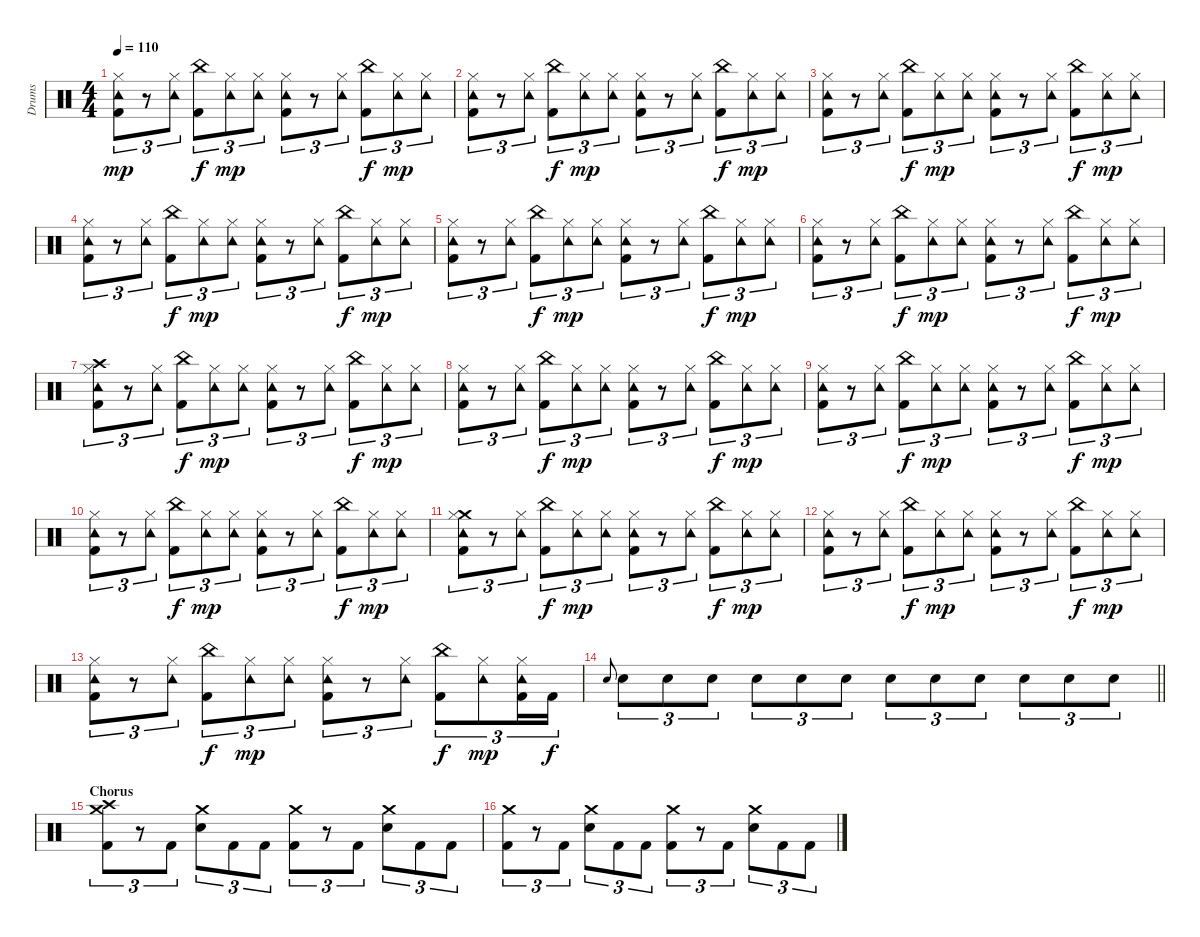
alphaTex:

\track ("Drums" "Drums") {instrument percussion}
\staff {score}
\articulation defaults
\ts (4 4)
\tempo 110
\clef neutral
\ks c
("Hi-Hat (closed)" "Tambourine (hit)" "Kick (hit) 2").8{tu (3 2) dy mp} r.8{tu (3 2)} ("Hi-Hat (closed)" "Tambourine (hit)").8{tu (3 2)} ("China (hit)" "Kick (hit) 2").8{tu (3 2) dy f} ("Hi-Hat (closed)" "Tambourine (hit)").8{tu (3 2) dy mp} ("Hi-Hat (closed)" "Tambourine (hit)").8{tu (3 2)} ("Hi-Hat (closed)" "Tambourine (hit)" "Kick (hit) 2").8{tu (3 2)} r.8{tu (3 2)} ("Hi-Hat (closed)" "Tambourine (hit)").8{tu (3 2)} ("China (hit)" "Kick (hit) 2").8{tu (3 2) dy f} ("Hi-Hat (closed)" "Tambourine (hit)").8{tu (3 2) dy mp} ("Hi-Hat (closed)" "Tambourine (hit)").8{tu (3 2)} |
("Hi-Hat (closed)" "Tambourine (hit)" "Kick (hit) 2").8{tu (3 2)} r.8{tu (3 2)} ("Hi-Hat (closed)" "Tambourine (hit)").8{tu (3 2)} ("China (hit)" "Kick (hit) 2").8{tu (3 2) dy f} ("Hi-Hat (closed)" "Tambourine (hit)").8{tu (3 2) dy mp} ("Hi-Hat (closed)" "Tambourine (hit)").8{tu (3 2)} ("Hi-Hat (closed)" "Tambourine (hit)" "Kick (hit) 2").8{tu (3 2)} r.8{tu (3 2)} ("Hi-Hat (closed)" "Tambourine (hit)").8{tu (3 2)} ("China (hit)" "Kick (hit) 2").8{tu (3 2) dy f} ("Hi-Hat (closed)" "Tambourine (hit)").8{tu (3 2) dy mp} ("Hi-Hat (closed)" "Tambourine (hit)").8{tu (3 2)} |
("Hi-Hat (closed)" "Tambourine (hit)" "Kick (hit) 2").8{tu (3 2)} r.8{tu (3 2)} ("Hi-Hat (closed)" "Tambourine (hit)").8{tu (3 2)} ("China (hit)" "Kick (hit) 2").8{tu (3 2) dy f} ("Hi-Hat (closed)" "Tambourine (hit)").8{tu (3 2) dy mp} ("Hi-Hat (closed)" "Tambourine (hit)").8{tu (3 2)} ("Hi-Hat (closed)" "Tambourine (hit)" "Kick (hit) 2").8{tu (3 2)} r.8{tu (3 2)} ("Hi-Hat (closed)" "Tambourine (hit)").8{tu (3 2)} ("China (hit)" "Kick (hit) 2").8{tu (3 2) dy f} ("Hi-Hat (closed)" "Tambourine (hit)").8{tu (3 2) dy mp} ("Hi-Hat (closed)" "Tambourine (hit)").8{tu (3 2)} |
("Hi-Hat (closed)" "Tambourine (hit)" "Kick (hit) 2").8{tu (3 2)} r.8{tu (3 2)} ("Hi-Hat (closed)" "Tambourine (hit)").8{tu (3 2)} ("China (hit)" "Kick (hit) 2").8{tu (3 2) dy f} ("Hi-Hat (closed)" "Tambourine (hit)").8{tu (3 2) dy mp} ("Hi-Hat (closed)" "Tambourine (hit)").8{tu (3 2)} ("Hi-Hat (closed)" "Tambourine (hit)" "Kick (hit) 2").8{tu (3 2)} r.8{tu (3 2)} ("Hi-Hat (closed)" "Tambourine (hit)").8{tu (3 2)} ("China (hit)" "Kick (hit) 2").8{tu (3 2) dy f} ("Hi-Hat (closed)" "Tambourine (hit)").8{tu (3 2) dy mp} ("Hi-Hat (closed)" "Tambourine (hit)").8{tu (3 2)} |
("Hi-Hat (closed)" "Tambourine (hit)" "Kick (hit) 2").8{tu (3 2)} r.8{tu (3 2)} ("Hi-Hat (closed)" "Tambourine (hit)").8{tu (3 2)} ("China (hit)" "Kick (hit) 2").8{tu (3 2) dy f} ("Hi-Hat (closed)" "Tambourine (hit)").8{tu (3 2) dy mp} ("Hi-Hat (closed)" "Tambourine (hit)").8{tu (3 2)} ("Hi-Hat (closed)" "Tambourine (hit)" "Kick (hit) 2").8{tu (3 2)} r.8{tu (3 2)} ("Hi-Hat (closed)" "Tambourine (hit)").8{tu (3 2)} ("China (hit)" "Kick (hit) 2").8{tu (3 2) dy f} ("Hi-Hat (closed)" "Tambourine (hit)").8{tu (3 2) dy mp} ("Hi-Hat (closed)" "Tambourine (hit)").8{tu (3 2)} |
("Hi-Hat (closed)" "Tambourine (hit)" "Kick (hit) 2").8{tu (3 2)} r.8{tu (3 2)} ("Hi-Hat (closed)" "Tambourine (hit)").8{tu (3 2)} ("China (hit)" "Kick (hit) 2").8{tu (3 2) dy f} ("Hi-Hat (closed)" "Tambourine (hit)").8{tu (3 2) dy mp} ("Hi-Hat (closed)" "Tambourine (hit)").8{tu (3 2)} ("Hi-Hat (closed)" "Tambourine (hit)" "Kick (hit) 2").8{tu (3 2)} r.8{tu (3 2)} ("Hi-Hat (closed)" "Tambourine (hit)").8{tu (3 2)} ("China (hit)" "Kick (hit) 2").8{tu (3 2) dy f} ("Hi-Hat (closed)" "Tambourine (hit)").8{tu (3 2) dy mp} ("Hi-Hat (closed)" "Tambourine (hit)").8{tu (3 2)} |
("Crash high (hit)" "Hi-Hat (closed)" "Tambourine (hit)" "Kick (hit) 2").8{tu (3 2)} r.8{tu (3 2)} ("Hi-Hat (closed)" "Tambourine (hit)").8{tu (3 2)} ("China (hit)" "Kick (hit) 2").8{tu (3 2) dy f} ("Hi-Hat (closed)" "Tambourine (hit)").8{tu (3 2) dy mp} ("Hi-Hat (closed)" "Tambourine (hit)").8{tu (3 2)} ("Hi-Hat (closed)" "Tambourine (hit)" "Kick (hit) 2").8{tu (3 2)} r.8{tu (3 2)} ("Hi-Hat (closed)" "Tambourine (hit)").8{tu (3 2)} ("China (hit)" "Kick (hit) 2").8{tu (3 2) dy f} ("Hi-Hat (closed)" "Tambourine (hit)").8{tu (3 2) dy mp} ("Hi-Hat (closed)" "Tambourine (hit)").8{tu (3 2)} |
("Hi-Hat (closed)" "Tambourine (hit)" "Kick (hit) 2").8{tu (3 2)} r.8{tu (3 2)} ("Hi-Hat (closed)" "Tambourine (hit)").8{tu (3 2)} ("China (hit)" "Kick (hit) 2").8{tu (3 2) dy f} ("Hi-Hat (closed)" "Tambourine (hit)").8{tu (3 2) dy mp} ("Hi-Hat (closed)" "Tambourine (hit)").8{tu (3 2)} ("Hi-Hat (closed)" "Tambourine (hit)" "Kick (hit) 2").8{tu (3 2)} r.8{tu (3 2)} ("Hi-Hat (closed)" "Tambourine (hit)").8{tu (3 2)} ("China (hit)" "Kick (hit) 2").8{tu (3 2) dy f} ("Hi-Hat (closed)" "Tambourine (hit)").8{tu (3 2) dy mp} ("Hi-Hat (closed)" "Tambourine (hit)").8{tu (3 2)} |
("Hi-Hat (closed)" "Tambourine (hit)" "Kick (hit) 2").8{tu (3 2)} r.8{tu (3 2)} ("Hi-Hat (closed)" "Tambourine (hit)").8{tu (3 2)} ("China (hit)" "Kick (hit) 2").8{tu (3 2) dy f} ("Hi-Hat (closed)" "Tambourine (hit)").8{tu (3 2) dy mp} ("Hi-Hat (closed)" "Tambourine (hit)").8{tu (3 2)} ("Hi-Hat (closed)" "Tambourine (hit)" "Kick (hit) 2").8{tu (3 2)} r.8{tu (3 2)} ("Hi-Hat (closed)" "Tambourine (hit)").8{tu (3 2)} ("China (hit)" "Kick (hit) 2").8{tu (3 2) dy f} ("Hi-Hat (closed)" "Tambourine (hit)").8{tu (3 2) dy mp} ("Hi-Hat (closed)" "Tambourine (hit)").8{tu (3 2)} |
("Hi-Hat (closed)" "Tambourine (hit)" "Kick (hit) 2").8{tu (3 2)} r.8{tu (3 2)} ("Hi-Hat (closed)" "Tambourine (hit)").8{tu (3 2)} ("China (hit)" "Kick (hit) 2").8{tu (3 2) dy f} ("Hi-Hat (closed)" "Tambourine (hit)").8{tu (3 2) dy mp} ("Hi-Hat (closed)" "Tambourine (hit)").8{tu (3 2)} ("Hi-Hat (closed)" "Tambourine (hit)" "Kick (hit) 2").8{tu (3 2)} r.8{tu (3 2)} ("Hi-Hat (closed)" "Tambourine (hit)").8{tu (3 2)} ("China (hit)" "Kick (hit) 2").8{tu (3 2) dy f} ("Hi-Hat (closed)" "Tambourine (hit)").8{tu (3 2) dy mp} ("Hi-Hat (closed)" "Tambourine (hit)").8{tu (3 2)} |
("Crash medium (hit)" "Hi-Hat (closed)" "Tambourine (hit)" "Kick (hit) 2").8{tu (3 2)} r.8{tu (3 2)} ("Hi-Hat (closed)" "Tambourine (hit)").8{tu (3 2)} ("China (hit)" "Kick (hit) 2").8{tu (3 2) dy f} ("Hi-Hat (closed)" "Tambourine (hit)").8{tu (3 2) dy mp} ("Hi-Hat (closed)" "Tambourine (hit)").8{tu (3 2)} ("Hi-Hat (closed)" "Tambourine (hit)" "Kick (hit) 2").8{tu (3 2)} r.8{tu (3 2)} ("Hi-Hat (closed)" "Tambourine (hit)").8{tu (3 2)} ("China (hit)" "Kick (hit) 2").8{tu (3 2) dy f} ("Hi-Hat (closed)" "Tambourine (hit)").8{tu (3 2) dy mp} ("Hi-Hat (closed)" "Tambourine (hit)").8{tu (3 2)} |
("Hi-Hat (closed)" "Tambourine (hit)" "Kick (hit) 2").8{tu (3 2)} r.8{tu (3 2)} ("Hi-Hat (closed)" "Tambourine (hit)").8{tu (3 2)} ("China (hit)" "Kick (hit) 2").8{tu (3 2) dy f} ("Hi-Hat (closed)" "Tambourine (hit)").8{tu (3 2) dy mp} ("Hi-Hat (closed)" "Tambourine (hit)").8{tu (3 2)} ("Hi-Hat (closed)" "Tambourine (hit)" "Kick (hit) 2").8{tu (3 2)} r.8{tu (3 2)} ("Hi-Hat (closed)" "Tambourine (hit)").8{tu (3 2)} ("China (hit)" "Kick (hit) 2").8{tu (3 2) dy f} ("Hi-Hat (closed)" "Tambourine (hit)").8{tu (3 2) dy mp} ("Hi-Hat (closed)" "Tambourine (hit)").8{tu (3 2)} |
("Hi-Hat (closed)" "Tambourine (hit)" "Kick (hit) 2").8{tu (3 2)} r.8{tu (3 2)} ("Hi-Hat (closed)" "Tambourine (hit)").8{tu (3 2)} ("China (hit)" "Kick (hit) 2").8{tu (3 2) dy f} ("Hi-Hat (closed)" "Tambourine (hit)").8{tu (3 2) dy mp} ("Hi-Hat (closed)" "Tambourine (hit)").8{tu (3 2)} ("Hi-Hat (closed)" "Tambourine (hit)" "Kick (hit) 2").8{tu (3 2)} r.8{tu (3 2)} ("Hi-Hat (closed)" "Tambourine (hit)").8{tu (3 2)} ("China (hit)" "Kick (hit) 2").8{tu (3 2) dy f} ("Hi-Hat (closed)" "Tambourine (hit)").8{tu (3 2) dy mp} ("Hi-Hat (closed)" "Tambourine (hit)" "Kick (hit) 2").16{tu (3 2)} "Kick (hit) 2".16{tu (3 2) dy f} |
\barLineRight lightlight "Electric Snare (hit)".8{gr onbeat} "Electric Snare (hit)".8{tu (3 2)} "Electric Snare (hit)".8{tu (3 2)} "Electric Snare (hit)".8{tu (3 2)} "Electric Snare (hit)".8{tu (3 2)} "Electric Snare (hit)".8{tu (3 2)} "Electric Snare (hit)".8{tu (3 2)} "Electric Snare (hit)".8{tu (3 2)} "Electric Snare (hit)".8{tu (3 2)} "Electric Snare (hit)".8{tu (3 2)} "Electric Snare (hit)".8{tu (3 2)} "Electric Snare (hit)".8{tu (3 2)} "Electric Snare (hit)".8{tu (3 2)}
|
\section ("" "Chorus")
("Crash medium (hit)" "Crash high (hit)" "Kick (hit) 2").8{tu (3 2)} r.8{tu (3 2)} "Kick (hit) 2".8{tu (3 2)} ("Crash medium (hit)" "Electric Snare (hit)").8{tu (3 2)} "Kick (hit) 2".8{tu (3 2)} "Kick (hit) 2".8{tu (3 2)} ("Crash medium (hit)" "Kick (hit) 2").8{tu (3 2)} r.8{tu (3 2)} "Kick (hit) 2".8{tu (3 2)} ("Crash medium (hit)" "Electric Snare (hit)").8{tu (3 2)} "Kick (hit) 2".8{tu (3 2)} "Kick (hit) 2".8{tu (3 2)} |
("Crash medium (hit)" "Kick (hit) 2").8{tu (3 2)} r.8{tu (3 2)} "Kick (hit) 2".8{tu (3 2)} ("Crash medium (hit)" "Electric Snare (hit)").8{tu (3 2)} "Kick (hit) 2".8{tu (3 2)} "Kick (hit) 2".8{tu (3 2)} ("Crash medium (hit)" "Kick (hit) 2").8{tu (3 2)} r.8{tu (3 2)} "Kick (hit) 2".8{tu (3 2)} ("Crash medium (hit)" "Electric Snare (hit)").8{tu (3 2)} "Kick (hit) 2".8{tu (3 2)} "Kick (hit) 2".8{tu (3 2)}
